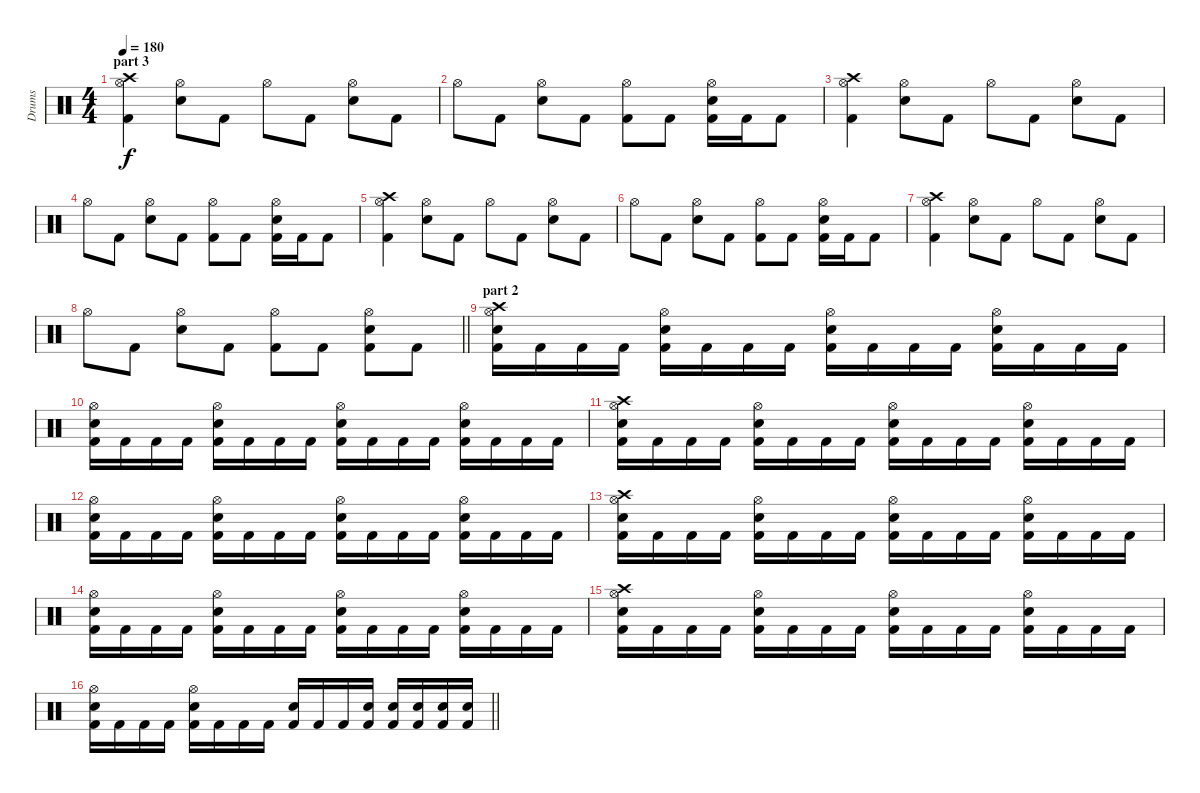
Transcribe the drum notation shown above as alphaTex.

\track ("Drums" "Drums") {instrument percussion}
\staff {score}
\articulation defaults
\ts (4 4)
\section ("" "part 3")
\tempo 180
\clef neutral
\ks c
("Crash high (hit)" "Hi-Hat (open)" "Kick (hit) 2").4{dy f} ("Hi-Hat (open)" "Electric Snare (hit)").8 "Kick (hit) 2".8 "Hi-Hat (open)".8 "Kick (hit) 2".8 ("Hi-Hat (open)" "Electric Snare (hit)").8 "Kick (hit) 2".8 |
"Hi-Hat (open)".8 "Kick (hit) 2".8 ("Hi-Hat (open)" "Electric Snare (hit)").8 "Kick (hit) 2".8 ("Hi-Hat (open)" "Kick (hit) 2").8 "Kick (hit) 2".8 ("Hi-Hat (open)" "Electric Snare (hit)" "Kick (hit) 2").16 "Kick (hit) 2".16 "Kick (hit) 2".8 |
("Crash high (hit)" "Hi-Hat (open)" "Kick (hit) 2").4 ("Hi-Hat (open)" "Electric Snare (hit)").8 "Kick (hit) 2".8 "Hi-Hat (open)".8 "Kick (hit) 2".8 ("Hi-Hat (open)" "Electric Snare (hit)").8 "Kick (hit) 2".8 |
"Hi-Hat (open)".8 "Kick (hit) 2".8 ("Hi-Hat (open)" "Electric Snare (hit)").8 "Kick (hit) 2".8 ("Hi-Hat (open)" "Kick (hit) 2").8 "Kick (hit) 2".8 ("Hi-Hat (open)" "Electric Snare (hit)" "Kick (hit) 2").16 "Kick (hit) 2".16 "Kick (hit) 2".8 |
("Crash high (hit)" "Hi-Hat (open)" "Kick (hit) 2").4 ("Hi-Hat (open)" "Electric Snare (hit)").8 "Kick (hit) 2".8 "Hi-Hat (open)".8 "Kick (hit) 2".8 ("Hi-Hat (open)" "Electric Snare (hit)").8 "Kick (hit) 2".8 |
"Hi-Hat (open)".8 "Kick (hit) 2".8 ("Hi-Hat (open)" "Electric Snare (hit)").8 "Kick (hit) 2".8 ("Hi-Hat (open)" "Kick (hit) 2").8 "Kick (hit) 2".8 ("Hi-Hat (open)" "Electric Snare (hit)" "Kick (hit) 2").16 "Kick (hit) 2".16 "Kick (hit) 2".8 |
("Crash high (hit)" "Hi-Hat (open)" "Kick (hit) 2").4 ("Hi-Hat (open)" "Electric Snare (hit)").8 "Kick (hit) 2".8 "Hi-Hat (open)".8 "Kick (hit) 2".8 ("Hi-Hat (open)" "Electric Snare (hit)").8 "Kick (hit) 2".8 |
\barLineRight lightlight "Hi-Hat (open)".8 "Kick (hit) 2".8
("Hi-Hat (open)" "Electric Snare (hit)").8 "Kick (hit) 2".8 ("Hi-Hat (open)" "Kick (hit) 2").8 "Kick (hit) 2".8 ("Hi-Hat (open)" "Electric Snare (hit)" "Kick (hit) 2").8 "Kick (hit) 2".8 |
\section ("" "part 2")
("Crash high (hit)" "Hi-Hat (open)" "Electric Snare (hit)" "Kick (hit) 2").16 "Kick (hit) 2".16 "Kick (hit) 2".16 "Kick (hit) 2".16 ("Hi-Hat (open)" "Electric Snare (hit)" "Kick (hit) 2").16 "Kick (hit) 2".16 "Kick (hit) 2".16 "Kick (hit) 2".16 ("Hi-Hat (open)" "Electric Snare (hit)" "Kick (hit) 2").16 "Kick (hit) 2".16 "Kick (hit) 2".16 "Kick (hit) 2".16 ("Hi-Hat (open)" "Electric Snare (hit)" "Kick (hit) 2").16 "Kick (hit) 2".16 "Kick (hit) 2".16 "Kick (hit) 2".16 |
("Hi-Hat (open)" "Electric Snare (hit)" "Kick (hit) 2").16 "Kick (hit) 2".16 "Kick (hit) 2".16 "Kick (hit) 2".16 ("Hi-Hat (open)" "Electric Snare (hit)" "Kick (hit) 2").16 "Kick (hit) 2".16 "Kick (hit) 2".16 "Kick (hit) 2".16 ("Hi-Hat (open)" "Electric Snare (hit)" "Kick (hit) 2").16 "Kick (hit) 2".16 "Kick (hit) 2".16 "Kick (hit) 2".16 ("Hi-Hat (open)" "Electric Snare (hit)" "Kick (hit) 2").16 "Kick (hit) 2".16 "Kick (hit) 2".16 "Kick (hit) 2".16 |
("Crash high (hit)" "Hi-Hat (open)" "Electric Snare (hit)" "Kick (hit) 2").16 "Kick (hit) 2".16 "Kick (hit) 2".16 "Kick (hit) 2".16 ("Hi-Hat (open)" "Electric Snare (hit)" "Kick (hit) 2").16 "Kick (hit) 2".16 "Kick (hit) 2".16 "Kick (hit) 2".16 ("Hi-Hat (open)" "Electric Snare (hit)" "Kick (hit) 2").16 "Kick (hit) 2".16 "Kick (hit) 2".16 "Kick (hit) 2".16 ("Hi-Hat (open)" "Electric Snare (hit)" "Kick (hit) 2").16 "Kick (hit) 2".16 "Kick (hit) 2".16 "Kick (hit) 2".16 |
("Hi-Hat (open)" "Electric Snare (hit)" "Kick (hit) 2").16 "Kick (hit) 2".16 "Kick (hit) 2".16 "Kick (hit) 2".16 ("Hi-Hat (open)" "Electric Snare (hit)" "Kick (hit) 2").16 "Kick (hit) 2".16 "Kick (hit) 2".16 "Kick (hit) 2".16 ("Hi-Hat (open)" "Electric Snare (hit)" "Kick (hit) 2").16 "Kick (hit) 2".16 "Kick (hit) 2".16 "Kick (hit) 2".16 ("Hi-Hat (open)" "Electric Snare (hit)" "Kick (hit) 2").16 "Kick (hit) 2".16 "Kick (hit) 2".16 "Kick (hit) 2".16 |
("Crash high (hit)" "Hi-Hat (open)" "Electric Snare (hit)" "Kick (hit) 2").16 "Kick (hit) 2".16 "Kick (hit) 2".16 "Kick (hit) 2".16 ("Hi-Hat (open)" "Electric Snare (hit)" "Kick (hit) 2").16 "Kick (hit) 2".16 "Kick (hit) 2".16 "Kick (hit) 2".16 ("Hi-Hat (open)" "Electric Snare (hit)" "Kick (hit) 2").16 "Kick (hit) 2".16 "Kick (hit) 2".16 "Kick (hit) 2".16 ("Hi-Hat (open)" "Electric Snare (hit)" "Kick (hit) 2").16 "Kick (hit) 2".16 "Kick (hit) 2".16 "Kick (hit) 2".16 |
("Hi-Hat (open)" "Electric Snare (hit)" "Kick (hit) 2").16 "Kick (hit) 2".16 "Kick (hit) 2".16 "Kick (hit) 2".16 ("Hi-Hat (open)" "Electric Snare (hit)" "Kick (hit) 2").16 "Kick (hit) 2".16 "Kick (hit) 2".16 "Kick (hit) 2".16 ("Hi-Hat (open)" "Electric Snare (hit)" "Kick (hit) 2").16 "Kick (hit) 2".16 "Kick (hit) 2".16 "Kick (hit) 2".16 ("Hi-Hat (open)" "Electric Snare (hit)" "Kick (hit) 2").16 "Kick (hit) 2".16 "Kick (hit) 2".16 "Kick (hit) 2".16 |
("Crash high (hit)" "Hi-Hat (open)" "Electric Snare (hit)" "Kick (hit) 2").16 "Kick (hit) 2".16 "Kick (hit) 2".16 "Kick (hit) 2".16 ("Hi-Hat (open)" "Electric Snare (hit)" "Kick (hit) 2").16 "Kick (hit) 2".16 "Kick (hit) 2".16 "Kick (hit) 2".16 ("Hi-Hat (open)" "Electric Snare (hit)" "Kick (hit) 2").16 "Kick (hit) 2".16 "Kick (hit) 2".16 "Kick (hit) 2".16 ("Hi-Hat (open)" "Electric Snare (hit)" "Kick (hit) 2").16 "Kick (hit) 2".16 "Kick (hit) 2".16 "Kick (hit) 2".16 |
\barLineRight lightlight
("Hi-Hat (open)" "Electric Snare (hit)" "Kick (hit) 2").16 "Kick (hit) 2".16 "Kick (hit) 2".16 "Kick (hit) 2".16 ("Hi-Hat (open)" "Electric Snare (hit)" "Kick (hit) 2").16 "Kick (hit) 2".16 "Kick (hit) 2".16 "Kick (hit) 2".16 ("Electric Snare (hit)" "Kick (hit) 2").16 "Kick (hit) 2".16 "Kick (hit) 2".16 ("Electric Snare (hit)" "Kick (hit) 2").16 ("Electric Snare (hit)" "Kick (hit) 2").16 ("Electric Snare (hit)" "Kick (hit) 2").16 ("Electric Snare (hit)" "Kick (hit) 2").16 ("Electric Snare (hit)" "Kick (hit) 2").16
